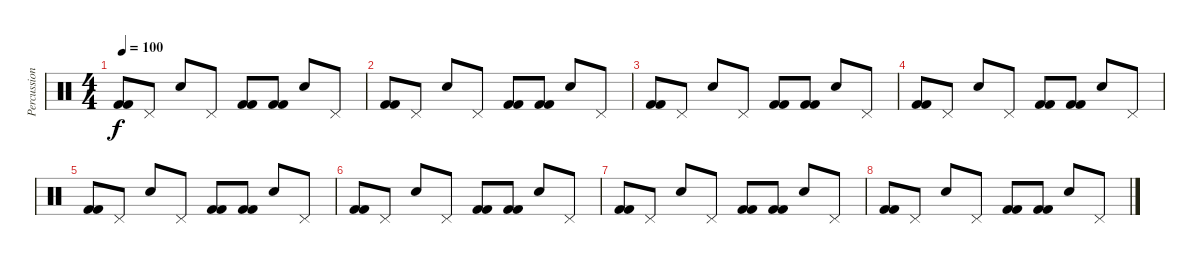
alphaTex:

\track ("Percussioni" "Percussion") {instrument percussion}
\staff {score}
\articulation defaults
\ts (4 4)
\tempo 100
\clef neutral
\ks c
("Kick (hit) 2" "Kick (hit) 2").8{dy f} "Pedal Hi-Hat (hit)".8 "Electric Snare (hit)".8 "Pedal Hi-Hat (hit)".8 ("Kick (hit) 2" "Kick (hit) 2").8 ("Kick (hit) 2" "Kick (hit) 2").8 "Electric Snare (hit)".8 "Pedal Hi-Hat (hit)".8 |
("Kick (hit) 2" "Kick (hit) 2").8 "Pedal Hi-Hat (hit)".8 "Electric Snare (hit)".8 "Pedal Hi-Hat (hit)".8 ("Kick (hit) 2" "Kick (hit) 2").8 ("Kick (hit) 2" "Kick (hit) 2").8 "Electric Snare (hit)".8 "Pedal Hi-Hat (hit)".8 |
("Kick (hit) 2" "Kick (hit) 2").8 "Pedal Hi-Hat (hit)".8 "Electric Snare (hit)".8 "Pedal Hi-Hat (hit)".8 ("Kick (hit) 2" "Kick (hit) 2").8 ("Kick (hit) 2" "Kick (hit) 2").8 "Electric Snare (hit)".8 "Pedal Hi-Hat (hit)".8 |
("Kick (hit) 2" "Kick (hit) 2").8 "Pedal Hi-Hat (hit)".8 "Electric Snare (hit)".8 "Pedal Hi-Hat (hit)".8 ("Kick (hit) 2" "Kick (hit) 2").8 ("Kick (hit) 2" "Kick (hit) 2").8 "Electric Snare (hit)".8 "Pedal Hi-Hat (hit)".8 |
("Kick (hit) 2" "Kick (hit) 2").8 "Pedal Hi-Hat (hit)".8 "Electric Snare (hit)".8 "Pedal Hi-Hat (hit)".8 ("Kick (hit) 2" "Kick (hit) 2").8 ("Kick (hit) 2" "Kick (hit) 2").8 "Electric Snare (hit)".8 "Pedal Hi-Hat (hit)".8 |
("Kick (hit) 2" "Kick (hit) 2").8 "Pedal Hi-Hat (hit)".8 "Electric Snare (hit)".8 "Pedal Hi-Hat (hit)".8 ("Kick (hit) 2" "Kick (hit) 2").8 ("Kick (hit) 2" "Kick (hit) 2").8 "Electric Snare (hit)".8 "Pedal Hi-Hat (hit)".8 |
("Kick (hit) 2" "Kick (hit) 2").8 "Pedal Hi-Hat (hit)".8 "Electric Snare (hit)".8 "Pedal Hi-Hat (hit)".8 ("Kick (hit) 2" "Kick (hit) 2").8 ("Kick (hit) 2" "Kick (hit) 2").8 "Electric Snare (hit)".8 "Pedal Hi-Hat (hit)".8 |
("Kick (hit) 2" "Kick (hit) 2").8 "Pedal Hi-Hat (hit)".8 "Electric Snare (hit)".8 "Pedal Hi-Hat (hit)".8 ("Kick (hit) 2" "Kick (hit) 2").8 ("Kick (hit) 2" "Kick (hit) 2").8 "Electric Snare (hit)".8 "Pedal Hi-Hat (hit)".8
